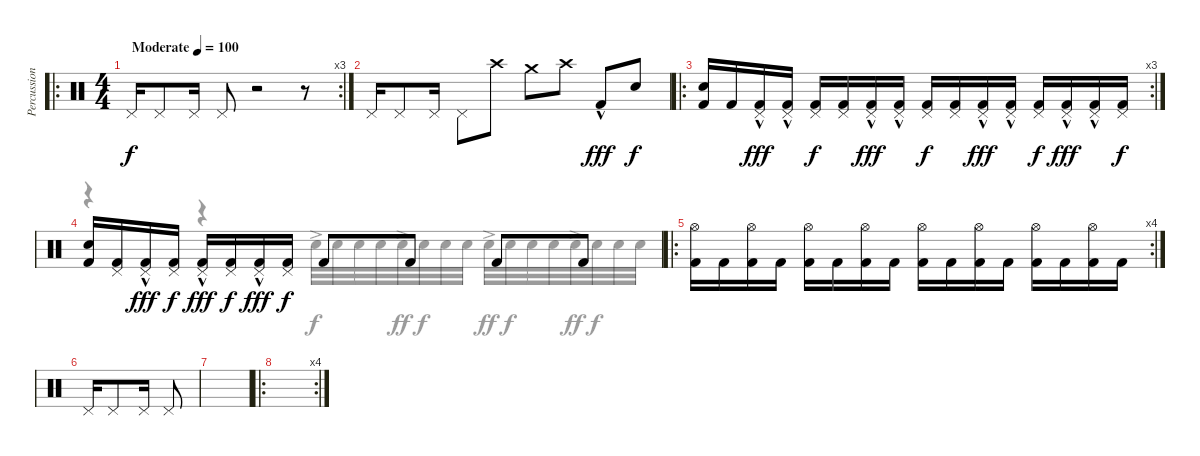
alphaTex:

\track ("Percussion" "Percussion") {instrument percussion}
\staff {score}
\articulation defaults
\voice
\ro
\rc 3
\ts (4 4)
\tempo (100 "Moderate")
\clef neutral
\ks c "Pedal Hi-Hat (hit)".16{dy f} "Pedal Hi-Hat (hit)".8 "Pedal Hi-Hat (hit)".16 "Pedal Hi-Hat (hit)".8
r.2 r.8 |
"Pedal Hi-Hat (hit)".16 "Pedal Hi-Hat (hit)".8 "Pedal Hi-Hat (hit)".16 "Pedal Hi-Hat (hit)".8 "Crash high (hit)".8 "Crash medium (hit)".8 "Crash high (hit)".8 "Kick (hit) 2"{hac}.8{dy fff} "Snare (hit) 2".8{dy f} |
\ro
\rc 3
("Snare (hit) 2" "Kick (hit) 2").16 "Kick (hit) 2".16 ("Pedal Hi-Hat (hit)"{hac} "Kick (hit) 2").16{dy fff} ("Pedal Hi-Hat (hit)"{hac} "Kick (hit) 2").16 ("Pedal Hi-Hat (hit)" "Kick (hit) 2").16{dy f} ("Pedal Hi-Hat (hit)" "Kick (hit) 2").16 ("Pedal Hi-Hat (hit)"{hac} "Kick (hit) 2").16{dy fff} ("Pedal Hi-Hat (hit)"{hac} "Kick (hit) 2").16 ("Pedal Hi-Hat (hit)" "Kick (hit) 2").16{dy f} ("Pedal Hi-Hat (hit)" "Kick (hit) 2").16 ("Pedal Hi-Hat (hit)"{hac} "Kick (hit) 2").16{dy fff} ("Pedal Hi-Hat (hit)"{hac} "Kick (hit) 2").16 ("Pedal Hi-Hat (hit)" "Kick (hit) 2").16{dy f} ("Pedal Hi-Hat (hit)"{hac} "Kick (hit) 2").16{dy fff} ("Pedal Hi-Hat (hit)"{hac} "Kick (hit) 2").16 ("Pedal Hi-Hat (hit)" "Kick (hit) 2").16{dy f} |
("Snare (hit) 2" "Kick (hit) 2").16 ("Pedal Hi-Hat (hit)" "Kick (hit) 2").16 ("Pedal Hi-Hat (hit)"{hac} "Kick (hit) 2").16{dy fff} ("Pedal Hi-Hat (hit)" "Kick (hit) 2").16{dy f} ("Pedal Hi-Hat (hit)"{hac} "Kick (hit) 2").16{dy fff} ("Pedal Hi-Hat (hit)" "Kick (hit) 2").16{dy f} ("Pedal Hi-Hat (hit)"{hac} "Kick (hit) 2").16{dy fff} ("Pedal Hi-Hat (hit)" "Kick (hit) 2").16{dy f} "Kick (hit) 2".8 "Kick (hit) 2".8 "Kick (hit) 2".8 "Kick (hit) 2".8 |
\ro
\rc 4
("Hi-Hat (open)" "Kick (hit) 2").16 "Kick (hit) 2".16 ("Hi-Hat (open)" "Kick (hit) 2").16 "Kick (hit) 2".16 ("Hi-Hat (open)" "Kick (hit) 2").16 "Kick (hit) 2".16 ("Hi-Hat (open)" "Kick (hit) 2").16 "Kick (hit) 2".16 ("Hi-Hat (open)" "Kick (hit) 2").16 "Kick (hit) 2".16 ("Hi-Hat (open)" "Kick (hit) 2").16 "Kick (hit) 2".16 ("Hi-Hat (open)" "Kick (hit) 2").16 "Kick (hit) 2".16 ("Hi-Hat (open)" "Kick (hit) 2").16 "Kick (hit) 2".16 |
"Pedal Hi-Hat (hit)".16 "Pedal Hi-Hat (hit)".8 "Pedal Hi-Hat (hit)".16 "Pedal Hi-Hat (hit)".8 |
|
\ro
\rc 4
|
|
|
\voice
\clef neutral
\ottava regular
\simile none
\ks c
|
|
|
r.4 r.4 "Snare (hit) 2"{ac}.32 "Snare (hit) 2".32{dy f} "Snare (hit) 2".32 "Snare (hit) 2".32 "Snare (hit) 2"{ac}.32{dy ff} "Snare (hit) 2".32{dy f} "Snare (hit) 2".32 "Snare (hit) 2".32 "Snare (hit) 2"{ac}.32{dy ff} "Snare (hit) 2".32{dy f} "Snare (hit) 2".32 "Snare (hit) 2".32 "Snare (hit) 2"{ac}.32{dy ff} "Snare (hit) 2".32{dy f} "Snare (hit) 2".32 "Snare (hit) 2".32 |
|
|
|
|
|
|
